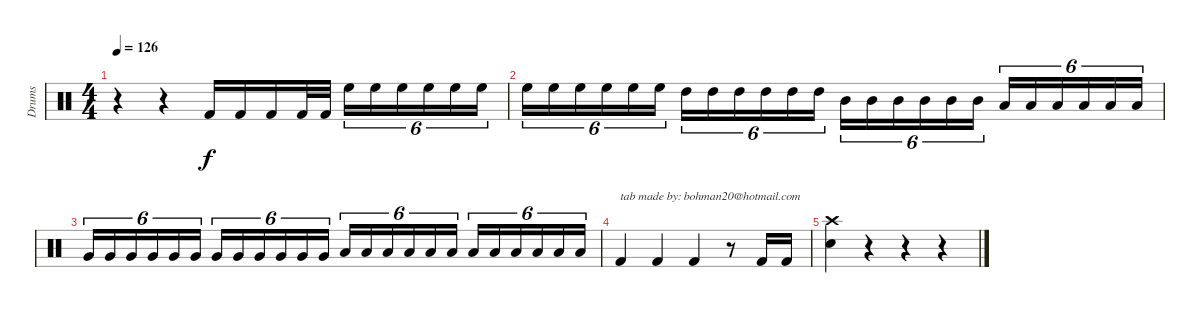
\track ("Drums" "Drums") {instrument percussion}
\staff {score}
\articulation defaults
\ts (4 4)
\tempo 126
\clef neutral
\ks c
r.4{dy f} r.4 "Kick (hit) 2".16 "Kick (hit) 2".16 "Kick (hit) 2".16 "Kick (hit) 2".32 "Kick (hit) 2".32 "High Floor Tom (hit)".16{tu (6 4)} "High Floor Tom (hit)".16{tu (6 4)} "High Floor Tom (hit)".16{tu (6 4)} "High Floor Tom (hit)".16{tu (6 4)} "High Floor Tom (hit)".16{tu (6 4)} "High Floor Tom (hit)".16{tu (6 4)} |
"High Floor Tom (hit)".16{tu (6 4)} "High Floor Tom (hit)".16{tu (6 4)} "High Floor Tom (hit)".16{tu (6 4)} "High Floor Tom (hit)".16{tu (6 4)} "High Floor Tom (hit)".16{tu (6 4)} "High Floor Tom (hit)".16{tu (6 4)} "High Tom (hit)".16{tu (6 4)} "High Tom (hit)".16{tu (6 4)} "High Tom (hit)".16{tu (6 4)} "High Tom (hit)".16{tu (6 4)} "High Tom (hit)".16{tu (6 4)} "High Tom (hit)".16{tu (6 4)} "Mid Tom (hit)".16{tu (6 4)} "Mid Tom (hit)".16{tu (6 4)} "Mid Tom (hit)".16{tu (6 4)} "Mid Tom (hit)".16{tu (6 4)} "Mid Tom (hit)".16{tu (6 4)} "Mid Tom (hit)".16{tu (6 4)} "Low Tom (hit)".16{tu (6 4)} "Low Tom (hit)".16{tu (6 4)} "Low Tom (hit)".16{tu (6 4)} "Low Tom (hit)".16{tu (6 4)} "Low Tom (hit)".16{tu (6 4)} "Low Tom (hit)".16{tu (6 4)} |
"Very Low Tom (hit)".16{tu (6 4)} "Very Low Tom (hit)".16{tu (6 4)} "Very Low Tom (hit)".16{tu (6 4)} "Very Low Tom (hit)".16{tu (6 4)} "Very Low Tom (hit)".16{tu (6 4)} "Very Low Tom (hit)".16{tu (6 4)} "Very Low Tom (hit)".16{tu (6 4)} "Very Low Tom (hit)".16{tu (6 4)} "Very Low Tom (hit)".16{tu (6 4)} "Very Low Tom (hit)".16{tu (6 4)} "Very Low Tom (hit)".16{tu (6 4)} "Very Low Tom (hit)".16{tu (6 4)} "Low Floor Tom (hit)".16{tu (6 4)} "Low Floor Tom (hit)".16{tu (6 4)} "Low Floor Tom (hit)".16{tu (6 4)} "Low Floor Tom (hit)".16{tu (6 4)} "Low Floor Tom (hit)".16{tu (6 4)} "Low Floor Tom (hit)".16{tu (6 4)} "Low Floor Tom (hit)".16{tu (6 4)} "Low Floor Tom (hit)".16{tu (6 4)} "Low Floor Tom (hit)".16{tu (6 4)} "Low Floor Tom (hit)".16{tu (6 4)} "Low Floor Tom (hit)".16{tu (6 4)} "Low Floor Tom (hit)".16{tu (6 4)} |
"Kick (hit) 2".4{txt "tab made by: bohman20@hotmail.com"} "Kick (hit) 2".4 "Kick (hit) 2".4 r.8 "Kick (hit) 2".16 "Kick (hit) 2".16 |
("Crash high (hit)" "Electric Snare (hit)").4 r.4 r.4 r.4
